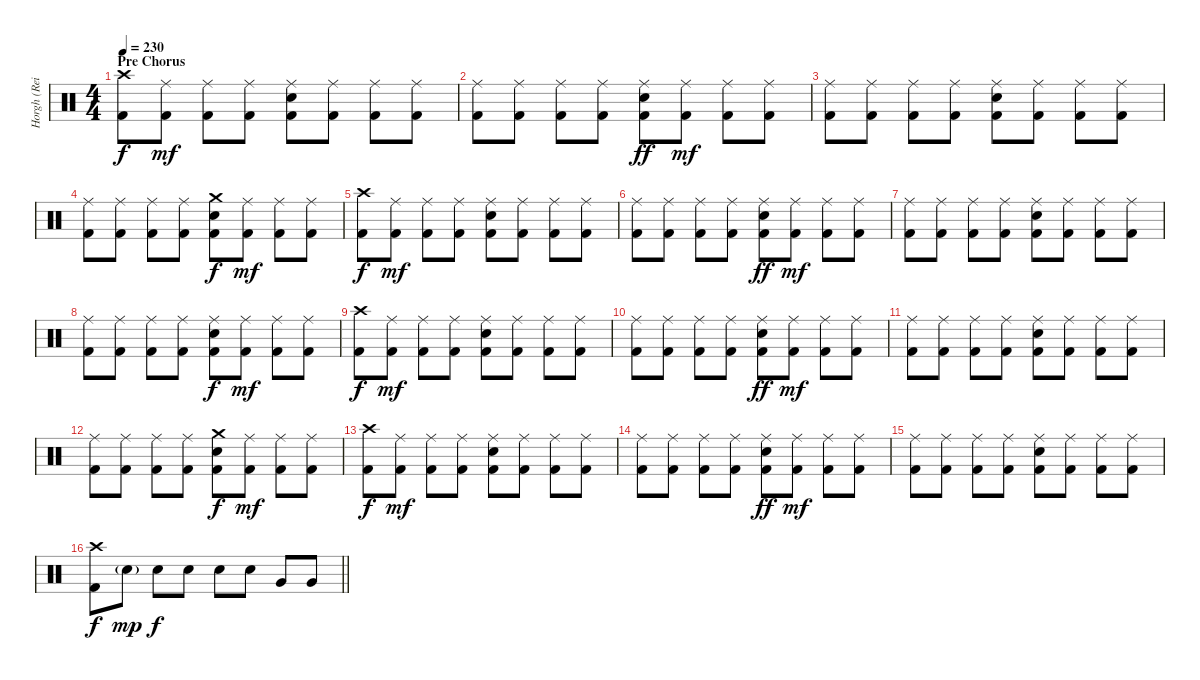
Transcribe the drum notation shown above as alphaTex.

\track ("Horgh (Reidar Horghagen)" "Horgh (Rei") {instrument percussion}
\staff {score}
\articulation defaults
\ts (4 4)
\section ("" "Pre Chorus")
\tempo 230
\clef neutral
\ks c
("Crash high (hit)" "Kick (hit) 2").8{dy f} ("Ride (middle)" "Kick (hit) 2").8{dy mf} ("Ride (middle)" "Kick (hit) 2").8 ("Ride (middle)" "Kick (hit) 2").8 ("Ride (middle)" "Snare (hit) 2" "Kick (hit) 2").8 ("Ride (middle)" "Kick (hit) 2").8 ("Ride (middle)" "Kick (hit) 2").8 ("Ride (middle)" "Kick (hit) 2").8 |
("Ride (middle)" "Kick (hit) 2").8 ("Ride (middle)" "Kick (hit) 2").8 ("Ride (middle)" "Kick (hit) 2").8 ("Ride (middle)" "Kick (hit) 2").8 ("Ride (middle)" "Snare (hit) 2" "Kick (hit) 2").8{dy ff} ("Ride (middle)" "Kick (hit) 2").8{dy mf} ("Ride (middle)" "Kick (hit) 2").8 ("Ride (middle)" "Kick (hit) 2").8 |
("Ride (middle)" "Kick (hit) 2").8 ("Ride (middle)" "Kick (hit) 2").8 ("Ride (middle)" "Kick (hit) 2").8 ("Ride (middle)" "Kick (hit) 2").8 ("Ride (middle)" "Snare (hit) 2" "Kick (hit) 2").8 ("Ride (middle)" "Kick (hit) 2").8 ("Ride (middle)" "Kick (hit) 2").8 ("Ride (middle)" "Kick (hit) 2").8 |
("Ride (middle)" "Kick (hit) 2").8 ("Ride (middle)" "Kick (hit) 2").8 ("Ride (middle)" "Kick (hit) 2").8 ("Ride (middle)" "Kick (hit) 2").8 ("Crash medium (hit)" "Snare (hit) 2" "Kick (hit) 2").8{dy f} ("Ride (middle)" "Kick (hit) 2").8{dy mf} ("Ride (middle)" "Kick (hit) 2").8 ("Ride (middle)" "Kick (hit) 2").8 |
("Crash high (hit)" "Kick (hit) 2").8{dy f} ("Ride (middle)" "Kick (hit) 2").8{dy mf} ("Ride (middle)" "Kick (hit) 2").8 ("Ride (middle)" "Kick (hit) 2").8 ("Ride (middle)" "Snare (hit) 2" "Kick (hit) 2").8 ("Ride (middle)" "Kick (hit) 2").8 ("Ride (middle)" "Kick (hit) 2").8 ("Ride (middle)" "Kick (hit) 2").8 |
("Ride (middle)" "Kick (hit) 2").8 ("Ride (middle)" "Kick (hit) 2").8 ("Ride (middle)" "Kick (hit) 2").8 ("Ride (middle)" "Kick (hit) 2").8 ("Ride (middle)" "Snare (hit) 2" "Kick (hit) 2").8{dy ff} ("Ride (middle)" "Kick (hit) 2").8{dy mf} ("Ride (middle)" "Kick (hit) 2").8 ("Ride (middle)" "Kick (hit) 2").8 |
("Ride (middle)" "Kick (hit) 2").8 ("Ride (middle)" "Kick (hit) 2").8 ("Ride (middle)" "Kick (hit) 2").8 ("Ride (middle)" "Kick (hit) 2").8 ("Ride (middle)" "Snare (hit) 2" "Kick (hit) 2").8 ("Ride (middle)" "Kick (hit) 2").8 ("Ride (middle)" "Kick (hit) 2").8 ("Ride (middle)" "Kick (hit) 2").8 |
("Ride (middle)" "Kick (hit) 2").8 ("Ride (middle)" "Kick (hit) 2").8 ("Ride (middle)" "Kick (hit) 2").8 ("Ride (middle)" "Kick (hit) 2").8 ("Ride (middle)" "Snare (hit) 2" "Kick (hit) 2").8{dy f} ("Ride (middle)" "Kick (hit) 2").8{dy mf} ("Ride (middle)" "Kick (hit) 2").8 ("Ride (middle)" "Kick (hit) 2").8 |
("Crash high (hit)" "Kick (hit) 2").8{dy f} ("Ride (middle)" "Kick (hit) 2").8{dy mf} ("Ride (middle)" "Kick (hit) 2").8 ("Ride (middle)" "Kick (hit) 2").8 ("Ride (middle)" "Snare (hit) 2" "Kick (hit) 2").8 ("Ride (middle)" "Kick (hit) 2").8 ("Ride (middle)" "Kick (hit) 2").8 ("Ride (middle)" "Kick (hit) 2").8 |
("Ride (middle)" "Kick (hit) 2").8 ("Ride (middle)" "Kick (hit) 2").8 ("Ride (middle)" "Kick (hit) 2").8 ("Ride (middle)" "Kick (hit) 2").8 ("Ride (middle)" "Snare (hit) 2" "Kick (hit) 2").8{dy ff} ("Ride (middle)" "Kick (hit) 2").8{dy mf} ("Ride (middle)" "Kick (hit) 2").8 ("Ride (middle)" "Kick (hit) 2").8 |
("Ride (middle)" "Kick (hit) 2").8 ("Ride (middle)" "Kick (hit) 2").8 ("Ride (middle)" "Kick (hit) 2").8 ("Ride (middle)" "Kick (hit) 2").8 ("Ride (middle)" "Snare (hit) 2" "Kick (hit) 2").8 ("Ride (middle)" "Kick (hit) 2").8 ("Ride (middle)" "Kick (hit) 2").8 ("Ride (middle)" "Kick (hit) 2").8 |
("Ride (middle)" "Kick (hit) 2").8 ("Ride (middle)" "Kick (hit) 2").8 ("Ride (middle)" "Kick (hit) 2").8 ("Ride (middle)" "Kick (hit) 2").8 ("Crash medium (hit)" "Snare (hit) 2" "Kick (hit) 2").8{dy f} ("Ride (middle)" "Kick (hit) 2").8{dy mf} ("Ride (middle)" "Kick (hit) 2").8 ("Ride (middle)" "Kick (hit) 2").8 |
("Crash high (hit)" "Kick (hit) 2").8{dy f} ("Ride (middle)" "Kick (hit) 2").8{dy mf} ("Ride (middle)" "Kick (hit) 2").8 ("Ride (middle)" "Kick (hit) 2").8 ("Ride (middle)" "Snare (hit) 2" "Kick (hit) 2").8 ("Ride (middle)" "Kick (hit) 2").8 ("Ride (middle)" "Kick (hit) 2").8 ("Ride (middle)" "Kick (hit) 2").8 |
("Ride (middle)" "Kick (hit) 2").8 ("Ride (middle)" "Kick (hit) 2").8 ("Ride (middle)" "Kick (hit) 2").8 ("Ride (middle)" "Kick (hit) 2").8 ("Ride (middle)" "Snare (hit) 2" "Kick (hit) 2").8{dy ff} ("Ride (middle)" "Kick (hit) 2").8{dy mf} ("Ride (middle)" "Kick (hit) 2").8 ("Ride (middle)" "Kick (hit) 2").8 |
("Ride (middle)" "Kick (hit) 2").8 ("Ride (middle)" "Kick (hit) 2").8 ("Ride (middle)" "Kick (hit) 2").8 ("Ride (middle)" "Kick (hit) 2").8 ("Ride (middle)" "Snare (hit) 2" "Kick (hit) 2").8 ("Ride (middle)" "Kick (hit) 2").8 ("Ride (middle)" "Kick (hit) 2").8 ("Ride (middle)" "Kick (hit) 2").8 |
\barLineRight lightlight
("Crash high (hit)" "Kick (hit) 2").8{dy f} "Snare (hit) 2"{g}.8{dy mp} "Snare (hit) 2".8{dy f} "Snare (hit) 2".8 "Snare (hit) 2".8 "Snare (hit) 2".8 "Very Low Tom (hit)".8 "Very Low Tom (hit)".8
